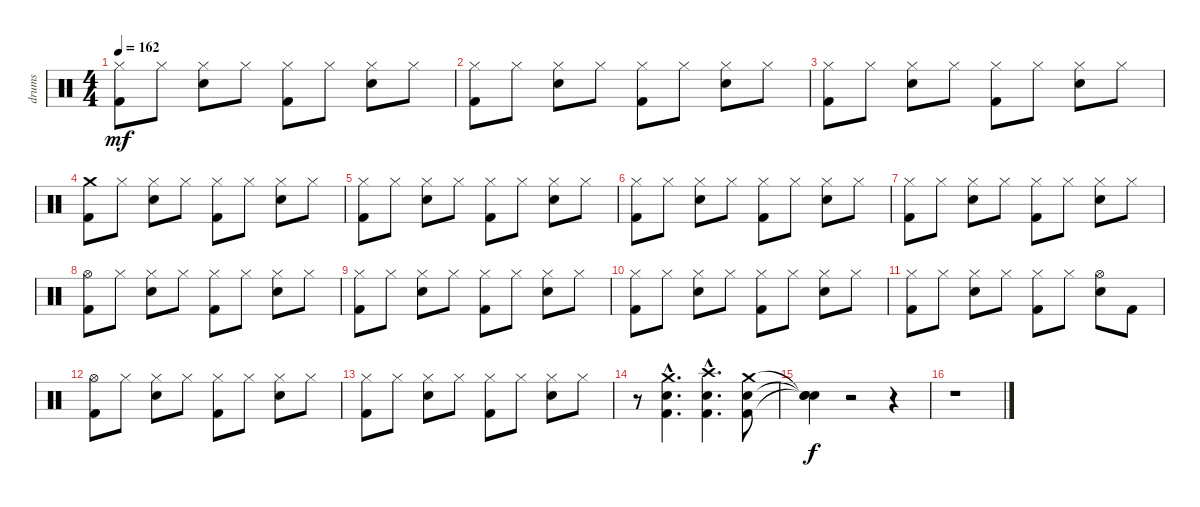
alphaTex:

\track ("drums" "drums") {instrument percussion}
\staff {score}
\articulation defaults
\ts (4 4)
\tempo 162
\clef neutral
\ks c
("Hi-Hat (closed)" "Kick (hit) 2").8{dy mf} "Hi-Hat (closed)".8 ("Hi-Hat (closed)" "Snare (hit) 2").8 "Hi-Hat (closed)".8 ("Hi-Hat (closed)" "Kick (hit) 2").8 "Hi-Hat (closed)".8 ("Hi-Hat (closed)" "Snare (hit) 2").8 "Hi-Hat (closed)".8 |
("Hi-Hat (closed)" "Kick (hit) 2").8 "Hi-Hat (closed)".8 ("Hi-Hat (closed)" "Snare (hit) 2").8 "Hi-Hat (closed)".8 ("Hi-Hat (closed)" "Kick (hit) 2").8 "Hi-Hat (closed)".8 ("Hi-Hat (closed)" "Snare (hit) 2").8 "Hi-Hat (closed)".8 |
("Hi-Hat (closed)" "Kick (hit) 2").8 "Hi-Hat (closed)".8 ("Hi-Hat (closed)" "Snare (hit) 2").8 "Hi-Hat (closed)".8 ("Hi-Hat (closed)" "Kick (hit) 2").8 "Hi-Hat (closed)".8 ("Hi-Hat (closed)" "Snare (hit) 2").8 "Hi-Hat (closed)".8 |
("Crash medium (hit)" "Kick (hit) 2").8 "Hi-Hat (closed)".8 ("Hi-Hat (closed)" "Snare (hit) 2").8 "Hi-Hat (closed)".8 ("Hi-Hat (closed)" "Kick (hit) 2").8 "Hi-Hat (closed)".8 ("Hi-Hat (closed)" "Snare (hit) 2").8 "Hi-Hat (closed)".8 |
("Hi-Hat (closed)" "Kick (hit) 2").8 "Hi-Hat (closed)".8 ("Hi-Hat (closed)" "Snare (hit) 2").8 "Hi-Hat (closed)".8 ("Hi-Hat (closed)" "Kick (hit) 2").8 "Hi-Hat (closed)".8 ("Hi-Hat (closed)" "Snare (hit) 2").8 "Hi-Hat (closed)".8 |
("Hi-Hat (closed)" "Kick (hit) 2").8 "Hi-Hat (closed)".8 ("Hi-Hat (closed)" "Snare (hit) 2").8 "Hi-Hat (closed)".8 ("Hi-Hat (closed)" "Kick (hit) 2").8 "Hi-Hat (closed)".8 ("Hi-Hat (closed)" "Snare (hit) 2").8 "Hi-Hat (closed)".8 |
("Hi-Hat (closed)" "Kick (hit) 2").8 "Hi-Hat (closed)".8 ("Hi-Hat (closed)" "Snare (hit) 2").8 "Hi-Hat (closed)".8 ("Hi-Hat (closed)" "Kick (hit) 2").8 "Hi-Hat (closed)".8 ("Hi-Hat (closed)" "Snare (hit) 2").8 "Hi-Hat (closed)".8 |
("Hi-Hat (open)" "Kick (hit) 2").8 "Hi-Hat (closed)".8 ("Hi-Hat (closed)" "Snare (hit) 2").8 "Hi-Hat (closed)".8 ("Hi-Hat (closed)" "Kick (hit) 2").8 "Hi-Hat (closed)".8 ("Hi-Hat (closed)" "Snare (hit) 2").8 "Hi-Hat (closed)".8 |
("Hi-Hat (closed)" "Kick (hit) 2").8 "Hi-Hat (closed)".8 ("Hi-Hat (closed)" "Snare (hit) 2").8 "Hi-Hat (closed)".8 ("Hi-Hat (closed)" "Kick (hit) 2").8 "Hi-Hat (closed)".8 ("Hi-Hat (closed)" "Snare (hit) 2").8 "Hi-Hat (closed)".8 |
("Hi-Hat (closed)" "Kick (hit) 2").8 "Hi-Hat (closed)".8 ("Hi-Hat (closed)" "Snare (hit) 2").8 "Hi-Hat (closed)".8 ("Hi-Hat (closed)" "Kick (hit) 2").8 "Hi-Hat (closed)".8 ("Hi-Hat (closed)" "Snare (hit) 2").8 "Hi-Hat (closed)".8 |
("Hi-Hat (closed)" "Kick (hit) 2").8 "Hi-Hat (closed)".8 ("Hi-Hat (closed)" "Snare (hit) 2").8 "Hi-Hat (closed)".8 ("Hi-Hat (closed)" "Kick (hit) 2").8 "Hi-Hat (closed)".8 ("Hi-Hat (open)" "Snare (hit) 2").8 "Kick (hit) 2".8 |
("Hi-Hat (open)" "Kick (hit) 2").8 "Hi-Hat (closed)".8 ("Hi-Hat (closed)" "Snare (hit) 2").8 "Hi-Hat (closed)".8 ("Hi-Hat (closed)" "Kick (hit) 2").8 "Hi-Hat (closed)".8 ("Hi-Hat (closed)" "Snare (hit) 2").8 "Hi-Hat (closed)".8 |
("Hi-Hat (closed)" "Kick (hit) 2").8 "Hi-Hat (closed)".8 ("Hi-Hat (closed)" "Snare (hit) 2").8 "Hi-Hat (closed)".8 ("Hi-Hat (closed)" "Kick (hit) 2").8 "Hi-Hat (closed)".8 ("Hi-Hat (closed)" "Snare (hit) 2").8 "Hi-Hat (closed)".8 |
r.8 ("Crash medium (hit)"{hac} "Kick (hit) 2"{hac} "Snare (hit) 2"{hac}).4{d} ("Crash high (hit)"{hac} "Kick (hit) 2"{hac} "Snare (hit) 2"{hac}).4{d} ("Crash medium (hit)" "Kick (hit) 2" "Snare (hit) 2").8 |
("Snare (hit)"{t} "Snare (hit)"{t} "Snare (hit)"{t}).4{dy f} r.2 r.4 |
r.1
